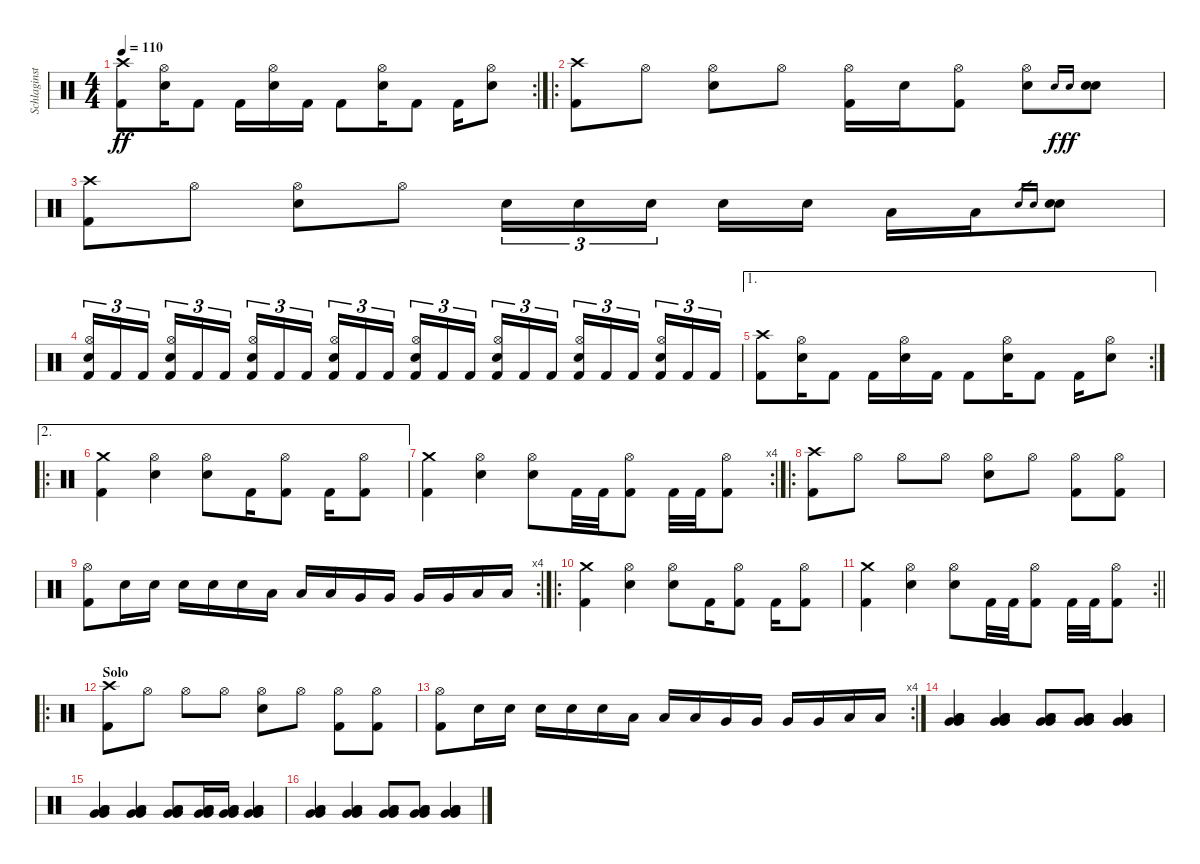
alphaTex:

\track ("Schlaginstrumente - Auswahl" "Schlaginst") {instrument percussion}
\staff {score}
\articulation defaults
\rc 2
\ts (4 4)
\tempo 110
\clef neutral
\ks c
("Crash high (hit)" "Kick (hit) 2").8{dy ff} ("Hi-Hat (open)" "Electric Snare (hit)").16 "Kick (hit) 2".8 "Kick (hit) 2".16 ("Hi-Hat (open)" "Electric Snare (hit)").16 "Kick (hit) 2".16 "Kick (hit) 2".8 ("Hi-Hat (open)" "Electric Snare (hit)").16 "Kick (hit) 2".8 "Kick (hit) 2".16 ("Hi-Hat (open)" "Electric Snare (hit)").8 |
\ro
("Crash high (hit)" "Kick (hit) 2").8 "Hi-Hat (open)".8 ("Hi-Hat (open)" "Electric Snare (hit)").8 "Hi-Hat (open)".8 ("Hi-Hat (open)" "Kick (hit) 2").16 "Electric Snare (hit)".16 ("Hi-Hat (open)" "Kick (hit) 2").8 ("Hi-Hat (open)" "Electric Snare (hit)").8 "Electric Snare (hit)".16{gr onbeat dy f} "Electric Snare (hit)".16{gr onbeat dy ff} ("Electric Snare (hit)" "Electric Snare (hit)").8 |
("Crash high (hit)" "Kick (hit) 2").8 "Hi-Hat (open)".8 ("Hi-Hat (open)" "Electric Snare (hit)").8 "Hi-Hat (open)".8 "Electric Snare (hit)".16{tu (3 2)} "Electric Snare (hit)".16{tu (3 2)} "Electric Snare (hit)".16{tu (3 2) beam splitsecondary} "Electric Snare (hit)".16 "Electric Snare (hit)".16 "Low Tom (hit)".16 "Low Tom (hit)".16 "Electric Snare (hit)".16{gr} "Electric Snare (hit)".16{gr} ("Electric Snare (hit)" "Electric Snare (hit)").8 |
("Hi-Hat (open)" "Electric Snare (hit)" "Kick (hit) 2").16{tu (3 2)} "Kick (hit) 2".16{tu (3 2)} "Kick (hit) 2".16{tu (3 2) beam splitsecondary} ("Hi-Hat (open)" "Electric Snare (hit)" "Kick (hit) 2").16{tu (3 2)} "Kick (hit) 2".16{tu (3 2)} "Kick (hit) 2".16{tu (3 2)} ("Hi-Hat (open)" "Electric Snare (hit)" "Kick (hit) 2").16{tu (3 2)} "Kick (hit) 2".16{tu (3 2)} "Kick (hit) 2".16{tu (3 2) beam splitsecondary} ("Hi-Hat (open)" "Electric Snare (hit)" "Kick (hit) 2").16{tu (3 2)} "Kick (hit) 2".16{tu (3 2)} "Kick (hit) 2".16{tu (3 2)} ("Hi-Hat (open)" "Electric Snare (hit)" "Kick (hit) 2").16{tu (3 2)} "Kick (hit) 2".16{tu (3 2)} "Kick (hit) 2".16{tu (3 2) beam splitsecondary} ("Hi-Hat (open)" "Electric Snare (hit)" "Kick (hit) 2").16{tu (3 2)} "Kick (hit) 2".16{tu (3 2)} "Kick (hit) 2".16{tu (3 2)} ("Hi-Hat (open)" "Electric Snare (hit)" "Kick (hit) 2").16{tu (3 2)} "Kick (hit) 2".16{tu (3 2)} "Kick (hit) 2".16{tu (3 2) beam splitsecondary} ("Hi-Hat (open)" "Electric Snare (hit)" "Kick (hit) 2").16{tu (3 2)} "Kick (hit) 2".16{tu (3 2)} "Kick (hit) 2".16{tu (3 2)} |
\ae 1
\rc 2
("Crash high (hit)" "Kick (hit) 2").8 ("Hi-Hat (open)" "Electric Snare (hit)").16 "Kick (hit) 2".8 "Kick (hit) 2".16 ("Hi-Hat (open)" "Electric Snare (hit)").16 "Kick (hit) 2".16 "Kick (hit) 2".8 ("Hi-Hat (open)" "Electric Snare (hit)").16 "Kick (hit) 2".8 "Kick (hit) 2".16 ("Hi-Hat (open)" "Electric Snare (hit)").8 |
\ae 2
\ro
("Crash medium (hit)" "Kick (hit) 2").4 ("Hi-Hat (open)" "Electric Snare (hit)").4 ("Hi-Hat (open)" "Electric Snare (hit)").8 "Kick (hit) 2".16 ("Hi-Hat (open)" "Kick (hit) 2").8 "Kick (hit) 2".16 ("Hi-Hat (open)" "Kick (hit) 2").8 |
\rc 4
("Crash medium (hit)" "Kick (hit) 2").4 ("Hi-Hat (open)" "Electric Snare (hit)").4 ("Hi-Hat (open)" "Electric Snare (hit)").8 "Kick (hit) 2".32 "Kick (hit) 2".32 ("Hi-Hat (open)" "Kick (hit) 2").8 "Kick (hit) 2".32 "Kick (hit) 2".32 ("Hi-Hat (open)" "Kick (hit) 2").8 |
\ro
("Crash high (hit)" "Kick (hit) 2").8 "Hi-Hat (open)".8 "Hi-Hat (open)".8 "Hi-Hat (open)".8 ("Hi-Hat (open)" "Electric Snare (hit)").8 "Hi-Hat (open)".8 ("Hi-Hat (open)" "Kick (hit) 2").8 ("Hi-Hat (open)" "Kick (hit) 2").8 |
\rc 4
("Hi-Hat (open)" "Kick (hit) 2").8 "Electric Snare (hit)".16 "Electric Snare (hit)".16 "Electric Snare (hit)".16 "Electric Snare (hit)".16 "Electric Snare (hit)".16 "Low Tom (hit)".16 "Low Tom (hit)".16 "Low Tom (hit)".16 "Very Low Tom (hit)".16 "Very Low Tom (hit)".16 "Very Low Tom (hit)".16 "Very Low Tom (hit)".16 "Low Floor Tom (hit)".16 "Low Floor Tom (hit)".16 |
\ro
("Crash medium (hit)" "Kick (hit) 2").4 ("Hi-Hat (open)" "Electric Snare (hit)").4 ("Hi-Hat (open)" "Electric Snare (hit)").8 "Kick (hit) 2".16 ("Hi-Hat (open)" "Kick (hit) 2").8 "Kick (hit) 2".16 ("Hi-Hat (open)" "Kick (hit) 2").8 |
\rc 2
\barLineRight lightlight
("Crash medium (hit)" "Kick (hit) 2").4 ("Hi-Hat (open)" "Electric Snare (hit)").4 ("Hi-Hat (open)" "Electric Snare (hit)").8 "Kick (hit) 2".32 "Kick (hit) 2".32 ("Hi-Hat (open)" "Kick (hit) 2").8 "Kick (hit) 2".32 "Kick (hit) 2".32 ("Hi-Hat (open)" "Kick (hit) 2").8 |
\ro
\section ("" "Solo")
("Crash high (hit)" "Kick (hit) 2").8 "Hi-Hat (open)".8 "Hi-Hat (open)".8 "Hi-Hat (open)".8 ("Hi-Hat (open)" "Electric Snare (hit)").8 "Hi-Hat (open)".8 ("Hi-Hat (open)" "Kick (hit) 2").8 ("Hi-Hat (open)" "Kick (hit) 2").8 |
\rc 4
("Hi-Hat (open)" "Kick (hit) 2").8 "Electric Snare (hit)".16 "Electric Snare (hit)".16 "Electric Snare (hit)".16 "Electric Snare (hit)".16 "Electric Snare (hit)".16 "Low Tom (hit)".16 "Low Tom (hit)".16 "Low Tom (hit)".16 "Very Low Tom (hit)".16 "Very Low Tom (hit)".16 "Very Low Tom (hit)".16 "Very Low Tom (hit)".16 "Low Floor Tom (hit)".16 "Low Floor Tom (hit)".16 |
("Low Floor Tom (hit)" "Low Floor Tom (hit)" "Very Low Tom (hit)" "Very Low Tom (hit)").4 ("Low Floor Tom (hit)" "Low Floor Tom (hit)" "Very Low Tom (hit)" "Very Low Tom (hit)").4 ("Low Floor Tom (hit)" "Low Floor Tom (hit)" "Very Low Tom (hit)" "Very Low Tom (hit)").8 ("Low Floor Tom (hit)" "Low Floor Tom (hit)" "Very Low Tom (hit)" "Very Low Tom (hit)").8 ("Low Floor Tom (hit)" "Low Floor Tom (hit)" "Very Low Tom (hit)" "Very Low Tom (hit)").4 |
("Low Floor Tom (hit)" "Low Floor Tom (hit)" "Very Low Tom (hit)" "Very Low Tom (hit)").4 ("Low Floor Tom (hit)" "Low Floor Tom (hit)" "Very Low Tom (hit)" "Very Low Tom (hit)").4 ("Low Floor Tom (hit)" "Low Floor Tom (hit)" "Very Low Tom (hit)" "Very Low Tom (hit)").8 ("Low Floor Tom (hit)" "Low Floor Tom (hit)" "Very Low Tom (hit)" "Very Low Tom (hit)").16 ("Low Floor Tom (hit)" "Low Floor Tom (hit)" "Very Low Tom (hit)" "Very Low Tom (hit)").16 ("Low Floor Tom (hit)" "Low Floor Tom (hit)" "Very Low Tom (hit)" "Very Low Tom (hit)").4 |
("Low Floor Tom (hit)" "Low Floor Tom (hit)" "Very Low Tom (hit)" "Very Low Tom (hit)").4 ("Low Floor Tom (hit)" "Low Floor Tom (hit)" "Very Low Tom (hit)" "Very Low Tom (hit)").4 ("Low Floor Tom (hit)" "Low Floor Tom (hit)" "Very Low Tom (hit)" "Very Low Tom (hit)").8 ("Low Floor Tom (hit)" "Low Floor Tom (hit)" "Very Low Tom (hit)" "Very Low Tom (hit)").8 ("Low Floor Tom (hit)" "Low Floor Tom (hit)" "Very Low Tom (hit)" "Very Low Tom (hit)").4
